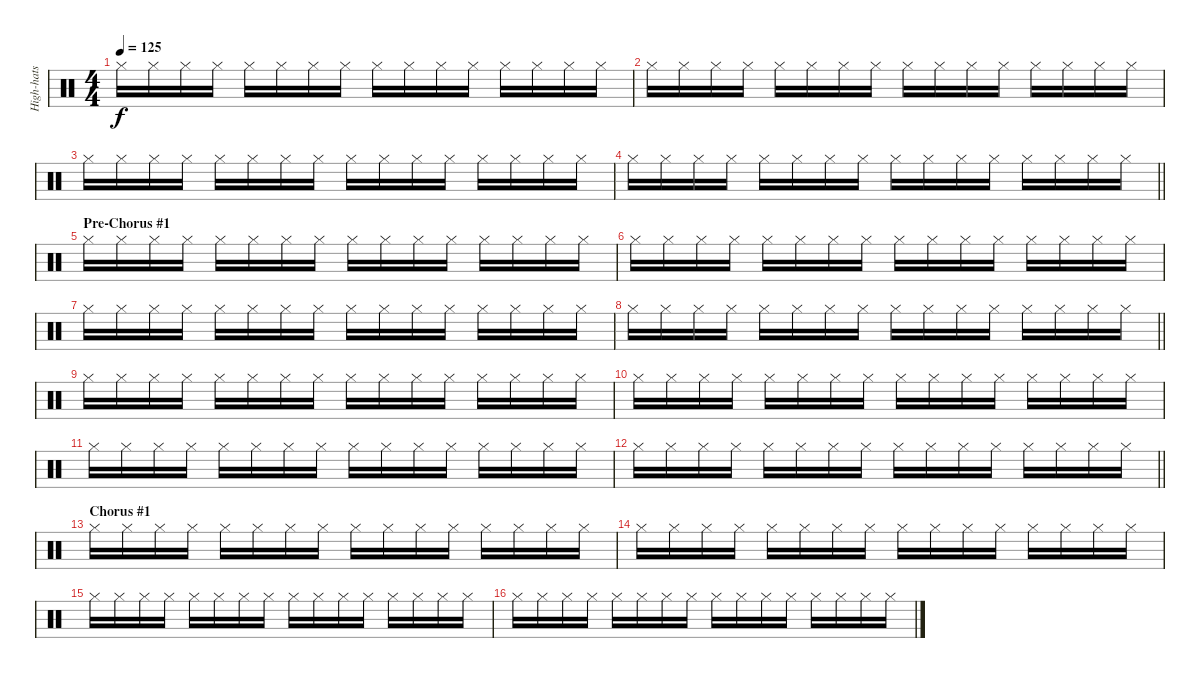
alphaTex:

\track ("High-hats" "High-hats") {instrument percussion}
\staff {score}
\articulation defaults
\ts (4 4)
\tempo 125
\clef neutral
\ks c "Hi-Hat (closed)".16{dy f} "Hi-Hat (closed)".16 "Hi-Hat (closed)".16 "Hi-Hat (closed)".16 "Hi-Hat (closed)".16 "Hi-Hat (closed)".16 "Hi-Hat (closed)".16 "Hi-Hat (closed)".16 "Hi-Hat (closed)".16 "Hi-Hat (closed)".16 "Hi-Hat (closed)".16 "Hi-Hat (closed)".16 "Hi-Hat (closed)".16 "Hi-Hat (closed)".16 "Hi-Hat (closed)".16 "Hi-Hat (closed)".16
|
"Hi-Hat (closed)".16 "Hi-Hat (closed)".16 "Hi-Hat (closed)".16 "Hi-Hat (closed)".16 "Hi-Hat (closed)".16 "Hi-Hat (closed)".16 "Hi-Hat (closed)".16 "Hi-Hat (closed)".16 "Hi-Hat (closed)".16 "Hi-Hat (closed)".16 "Hi-Hat (closed)".16 "Hi-Hat (closed)".16 "Hi-Hat (closed)".16 "Hi-Hat (closed)".16 "Hi-Hat (closed)".16 "Hi-Hat (closed)".16 |
"Hi-Hat (closed)".16 "Hi-Hat (closed)".16 "Hi-Hat (closed)".16 "Hi-Hat (closed)".16 "Hi-Hat (closed)".16 "Hi-Hat (closed)".16 "Hi-Hat (closed)".16 "Hi-Hat (closed)".16 "Hi-Hat (closed)".16 "Hi-Hat (closed)".16 "Hi-Hat (closed)".16 "Hi-Hat (closed)".16 "Hi-Hat (closed)".16 "Hi-Hat (closed)".16 "Hi-Hat (closed)".16 "Hi-Hat (closed)".16 |
\barLineRight lightlight "Hi-Hat (closed)".16 "Hi-Hat (closed)".16 "Hi-Hat (closed)".16 "Hi-Hat (closed)".16 "Hi-Hat (closed)".16 "Hi-Hat (closed)".16 "Hi-Hat (closed)".16 "Hi-Hat (closed)".16 "Hi-Hat (closed)".16 "Hi-Hat (closed)".16 "Hi-Hat (closed)".16 "Hi-Hat (closed)".16 "Hi-Hat (closed)".16 "Hi-Hat (closed)".16 "Hi-Hat (closed)".16 "Hi-Hat (closed)".16
|
\section ("" "Pre-Chorus #1")
"Hi-Hat (closed)".16 "Hi-Hat (closed)".16 "Hi-Hat (closed)".16 "Hi-Hat (closed)".16 "Hi-Hat (closed)".16 "Hi-Hat (closed)".16 "Hi-Hat (closed)".16 "Hi-Hat (closed)".16 "Hi-Hat (closed)".16 "Hi-Hat (closed)".16 "Hi-Hat (closed)".16 "Hi-Hat (closed)".16 "Hi-Hat (closed)".16 "Hi-Hat (closed)".16 "Hi-Hat (closed)".16 "Hi-Hat (closed)".16 |
"Hi-Hat (closed)".16 "Hi-Hat (closed)".16 "Hi-Hat (closed)".16 "Hi-Hat (closed)".16 "Hi-Hat (closed)".16 "Hi-Hat (closed)".16 "Hi-Hat (closed)".16 "Hi-Hat (closed)".16 "Hi-Hat (closed)".16 "Hi-Hat (closed)".16 "Hi-Hat (closed)".16 "Hi-Hat (closed)".16 "Hi-Hat (closed)".16 "Hi-Hat (closed)".16 "Hi-Hat (closed)".16 "Hi-Hat (closed)".16 |
"Hi-Hat (closed)".16 "Hi-Hat (closed)".16 "Hi-Hat (closed)".16 "Hi-Hat (closed)".16 "Hi-Hat (closed)".16 "Hi-Hat (closed)".16 "Hi-Hat (closed)".16 "Hi-Hat (closed)".16 "Hi-Hat (closed)".16 "Hi-Hat (closed)".16 "Hi-Hat (closed)".16 "Hi-Hat (closed)".16 "Hi-Hat (closed)".16 "Hi-Hat (closed)".16 "Hi-Hat (closed)".16 "Hi-Hat (closed)".16 |
\barLineRight lightlight "Hi-Hat (closed)".16 "Hi-Hat (closed)".16 "Hi-Hat (closed)".16 "Hi-Hat (closed)".16 "Hi-Hat (closed)".16 "Hi-Hat (closed)".16 "Hi-Hat (closed)".16 "Hi-Hat (closed)".16 "Hi-Hat (closed)".16 "Hi-Hat (closed)".16 "Hi-Hat (closed)".16 "Hi-Hat (closed)".16 "Hi-Hat (closed)".16 "Hi-Hat (closed)".16 "Hi-Hat (closed)".16 "Hi-Hat (closed)".16
|
"Hi-Hat (closed)".16 "Hi-Hat (closed)".16 "Hi-Hat (closed)".16 "Hi-Hat (closed)".16 "Hi-Hat (closed)".16 "Hi-Hat (closed)".16 "Hi-Hat (closed)".16 "Hi-Hat (closed)".16 "Hi-Hat (closed)".16 "Hi-Hat (closed)".16 "Hi-Hat (closed)".16 "Hi-Hat (closed)".16 "Hi-Hat (closed)".16 "Hi-Hat (closed)".16 "Hi-Hat (closed)".16 "Hi-Hat (closed)".16 |
"Hi-Hat (closed)".16 "Hi-Hat (closed)".16 "Hi-Hat (closed)".16 "Hi-Hat (closed)".16 "Hi-Hat (closed)".16 "Hi-Hat (closed)".16 "Hi-Hat (closed)".16 "Hi-Hat (closed)".16 "Hi-Hat (closed)".16 "Hi-Hat (closed)".16 "Hi-Hat (closed)".16 "Hi-Hat (closed)".16 "Hi-Hat (closed)".16 "Hi-Hat (closed)".16 "Hi-Hat (closed)".16 "Hi-Hat (closed)".16 |
"Hi-Hat (closed)".16 "Hi-Hat (closed)".16 "Hi-Hat (closed)".16 "Hi-Hat (closed)".16 "Hi-Hat (closed)".16 "Hi-Hat (closed)".16 "Hi-Hat (closed)".16 "Hi-Hat (closed)".16 "Hi-Hat (closed)".16 "Hi-Hat (closed)".16 "Hi-Hat (closed)".16 "Hi-Hat (closed)".16 "Hi-Hat (closed)".16 "Hi-Hat (closed)".16 "Hi-Hat (closed)".16 "Hi-Hat (closed)".16 |
\barLineRight lightlight "Hi-Hat (closed)".16 "Hi-Hat (closed)".16 "Hi-Hat (closed)".16 "Hi-Hat (closed)".16 "Hi-Hat (closed)".16 "Hi-Hat (closed)".16 "Hi-Hat (closed)".16 "Hi-Hat (closed)".16 "Hi-Hat (closed)".16 "Hi-Hat (closed)".16 "Hi-Hat (closed)".16 "Hi-Hat (closed)".16 "Hi-Hat (closed)".16 "Hi-Hat (closed)".16 "Hi-Hat (closed)".16 "Hi-Hat (closed)".16
|
\section ("" "Chorus #1")
"Hi-Hat (closed)".16 "Hi-Hat (closed)".16 "Hi-Hat (closed)".16 "Hi-Hat (closed)".16 "Hi-Hat (closed)".16 "Hi-Hat (closed)".16 "Hi-Hat (closed)".16 "Hi-Hat (closed)".16 "Hi-Hat (closed)".16 "Hi-Hat (closed)".16 "Hi-Hat (closed)".16 "Hi-Hat (closed)".16 "Hi-Hat (closed)".16 "Hi-Hat (closed)".16 "Hi-Hat (closed)".16 "Hi-Hat (closed)".16 |
"Hi-Hat (closed)".16 "Hi-Hat (closed)".16 "Hi-Hat (closed)".16 "Hi-Hat (closed)".16 "Hi-Hat (closed)".16 "Hi-Hat (closed)".16 "Hi-Hat (closed)".16 "Hi-Hat (closed)".16 "Hi-Hat (closed)".16 "Hi-Hat (closed)".16 "Hi-Hat (closed)".16 "Hi-Hat (closed)".16 "Hi-Hat (closed)".16 "Hi-Hat (closed)".16 "Hi-Hat (closed)".16 "Hi-Hat (closed)".16 |
"Hi-Hat (closed)".16 "Hi-Hat (closed)".16 "Hi-Hat (closed)".16 "Hi-Hat (closed)".16 "Hi-Hat (closed)".16 "Hi-Hat (closed)".16 "Hi-Hat (closed)".16 "Hi-Hat (closed)".16 "Hi-Hat (closed)".16 "Hi-Hat (closed)".16 "Hi-Hat (closed)".16 "Hi-Hat (closed)".16 "Hi-Hat (closed)".16 "Hi-Hat (closed)".16 "Hi-Hat (closed)".16 "Hi-Hat (closed)".16 |
"Hi-Hat (closed)".16 "Hi-Hat (closed)".16 "Hi-Hat (closed)".16 "Hi-Hat (closed)".16 "Hi-Hat (closed)".16 "Hi-Hat (closed)".16 "Hi-Hat (closed)".16 "Hi-Hat (closed)".16 "Hi-Hat (closed)".16 "Hi-Hat (closed)".16 "Hi-Hat (closed)".16 "Hi-Hat (closed)".16 "Hi-Hat (closed)".16 "Hi-Hat (closed)".16 "Hi-Hat (closed)".16 "Hi-Hat (closed)".16
